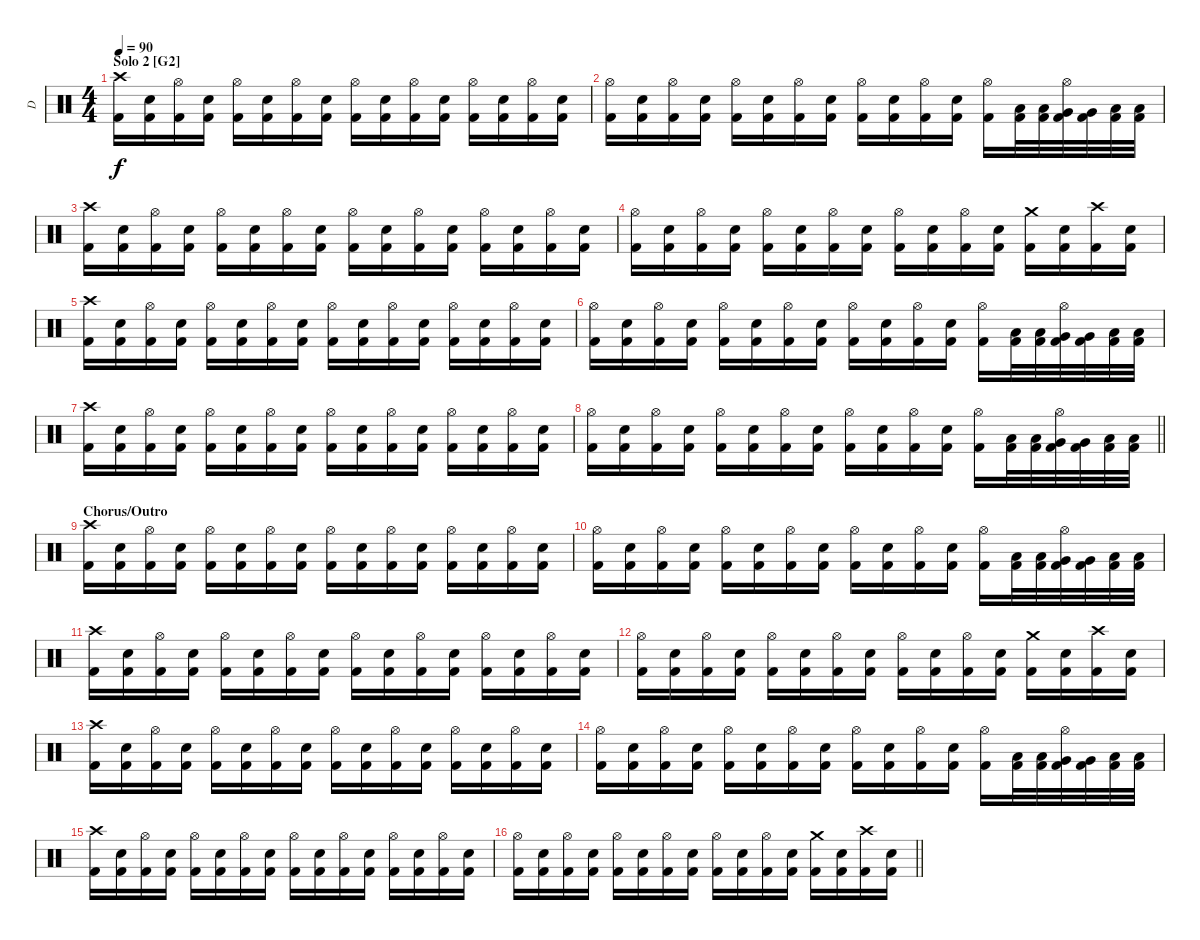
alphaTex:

\track ("D" "D") {instrument percussion}
\staff {score}
\articulation defaults
\ts (4 4)
\section ("" "Solo 2 [G2]")
\tempo 90
\clef neutral
\ks c
("Crash high (hit)" "Kick (hit) 2").16{dy f} ("Electric Snare (hit)" "Kick (hit) 2").16 ("Hi-Hat (open)" "Kick (hit) 2").16 ("Electric Snare (hit)" "Kick (hit) 2").16 ("Hi-Hat (open)" "Kick (hit) 2").16 ("Electric Snare (hit)" "Kick (hit) 2").16 ("Hi-Hat (open)" "Kick (hit) 2").16 ("Electric Snare (hit)" "Kick (hit) 2").16 ("Hi-Hat (open)" "Kick (hit) 2").16 ("Electric Snare (hit)" "Kick (hit) 2").16 ("Hi-Hat (open)" "Kick (hit) 2").16 ("Electric Snare (hit)" "Kick (hit) 2").16 ("Hi-Hat (open)" "Kick (hit) 2").16 ("Electric Snare (hit)" "Kick (hit) 2").16 ("Hi-Hat (open)" "Kick (hit) 2").16 ("Electric Snare (hit)" "Kick (hit) 2").16 |
("Hi-Hat (open)" "Kick (hit) 2").16 ("Electric Snare (hit)" "Kick (hit) 2").16 ("Hi-Hat (open)" "Kick (hit) 2").16 ("Electric Snare (hit)" "Kick (hit) 2").16 ("Hi-Hat (open)" "Kick (hit) 2").16 ("Electric Snare (hit)" "Kick (hit) 2").16 ("Hi-Hat (open)" "Kick (hit) 2").16 ("Electric Snare (hit)" "Kick (hit) 2").16 ("Hi-Hat (open)" "Kick (hit) 2").16 ("Electric Snare (hit)" "Kick (hit) 2").16 ("Hi-Hat (open)" "Kick (hit) 2").16 ("Electric Snare (hit)" "Kick (hit) 2").16 ("Hi-Hat (open)" "Kick (hit) 2").16 ("Low Tom (hit)" "Kick (hit) 2").32 ("Low Tom (hit)" "Kick (hit) 2").32 ("Hi-Hat (open)" "Very Low Tom (hit)" "Kick (hit) 2").32 ("Very Low Tom (hit)" "Kick (hit) 2").32 ("Low Floor Tom (hit)" "Kick (hit) 2").32 ("Low Floor Tom (hit)" "Kick (hit) 2").32 |
("Crash high (hit)" "Kick (hit) 2").16 ("Electric Snare (hit)" "Kick (hit) 2").16 ("Hi-Hat (open)" "Kick (hit) 2").16 ("Electric Snare (hit)" "Kick (hit) 2").16 ("Hi-Hat (open)" "Kick (hit) 2").16 ("Electric Snare (hit)" "Kick (hit) 2").16 ("Hi-Hat (open)" "Kick (hit) 2").16 ("Electric Snare (hit)" "Kick (hit) 2").16 ("Hi-Hat (open)" "Kick (hit) 2").16 ("Electric Snare (hit)" "Kick (hit) 2").16 ("Hi-Hat (open)" "Kick (hit) 2").16 ("Electric Snare (hit)" "Kick (hit) 2").16 ("Hi-Hat (open)" "Kick (hit) 2").16 ("Electric Snare (hit)" "Kick (hit) 2").16 ("Hi-Hat (open)" "Kick (hit) 2").16 ("Electric Snare (hit)" "Kick (hit) 2").16 |
("Hi-Hat (open)" "Kick (hit) 2").16 ("Electric Snare (hit)" "Kick (hit) 2").16 ("Hi-Hat (open)" "Kick (hit) 2").16 ("Electric Snare (hit)" "Kick (hit) 2").16 ("Hi-Hat (open)" "Kick (hit) 2").16 ("Electric Snare (hit)" "Kick (hit) 2").16 ("Hi-Hat (open)" "Kick (hit) 2").16 ("Electric Snare (hit)" "Kick (hit) 2").16 ("Hi-Hat (open)" "Kick (hit) 2").16 ("Electric Snare (hit)" "Kick (hit) 2").16 ("Hi-Hat (open)" "Kick (hit) 2").16 ("Electric Snare (hit)" "Kick (hit) 2").16 ("Crash medium (hit)" "Kick (hit) 2").16 ("Electric Snare (hit)" "Kick (hit) 2").16 ("Crash high (hit)" "Kick (hit) 2").16 ("Electric Snare (hit)" "Kick (hit) 2").16 |
("Crash high (hit)" "Kick (hit) 2").16 ("Electric Snare (hit)" "Kick (hit) 2").16 ("Hi-Hat (open)" "Kick (hit) 2").16 ("Electric Snare (hit)" "Kick (hit) 2").16 ("Hi-Hat (open)" "Kick (hit) 2").16 ("Electric Snare (hit)" "Kick (hit) 2").16 ("Hi-Hat (open)" "Kick (hit) 2").16 ("Electric Snare (hit)" "Kick (hit) 2").16 ("Hi-Hat (open)" "Kick (hit) 2").16 ("Electric Snare (hit)" "Kick (hit) 2").16 ("Hi-Hat (open)" "Kick (hit) 2").16 ("Electric Snare (hit)" "Kick (hit) 2").16 ("Hi-Hat (open)" "Kick (hit) 2").16 ("Electric Snare (hit)" "Kick (hit) 2").16 ("Hi-Hat (open)" "Kick (hit) 2").16 ("Electric Snare (hit)" "Kick (hit) 2").16 |
("Hi-Hat (open)" "Kick (hit) 2").16 ("Electric Snare (hit)" "Kick (hit) 2").16 ("Hi-Hat (open)" "Kick (hit) 2").16 ("Electric Snare (hit)" "Kick (hit) 2").16 ("Hi-Hat (open)" "Kick (hit) 2").16 ("Electric Snare (hit)" "Kick (hit) 2").16 ("Hi-Hat (open)" "Kick (hit) 2").16 ("Electric Snare (hit)" "Kick (hit) 2").16 ("Hi-Hat (open)" "Kick (hit) 2").16 ("Electric Snare (hit)" "Kick (hit) 2").16 ("Hi-Hat (open)" "Kick (hit) 2").16 ("Electric Snare (hit)" "Kick (hit) 2").16 ("Hi-Hat (open)" "Kick (hit) 2").16 ("Low Tom (hit)" "Kick (hit) 2").32 ("Low Tom (hit)" "Kick (hit) 2").32 ("Hi-Hat (open)" "Very Low Tom (hit)" "Kick (hit) 2").32 ("Very Low Tom (hit)" "Kick (hit) 2").32 ("Low Floor Tom (hit)" "Kick (hit) 2").32 ("Low Floor Tom (hit)" "Kick (hit) 2").32 |
("Crash high (hit)" "Kick (hit) 2").16 ("Electric Snare (hit)" "Kick (hit) 2").16 ("Hi-Hat (open)" "Kick (hit) 2").16 ("Electric Snare (hit)" "Kick (hit) 2").16 ("Hi-Hat (open)" "Kick (hit) 2").16 ("Electric Snare (hit)" "Kick (hit) 2").16 ("Hi-Hat (open)" "Kick (hit) 2").16 ("Electric Snare (hit)" "Kick (hit) 2").16 ("Hi-Hat (open)" "Kick (hit) 2").16 ("Electric Snare (hit)" "Kick (hit) 2").16 ("Hi-Hat (open)" "Kick (hit) 2").16 ("Electric Snare (hit)" "Kick (hit) 2").16 ("Hi-Hat (open)" "Kick (hit) 2").16 ("Electric Snare (hit)" "Kick (hit) 2").16 ("Hi-Hat (open)" "Kick (hit) 2").16 ("Electric Snare (hit)" "Kick (hit) 2").16 |
\barLineRight lightlight
("Hi-Hat (open)" "Kick (hit) 2").16 ("Electric Snare (hit)" "Kick (hit) 2").16 ("Hi-Hat (open)" "Kick (hit) 2").16 ("Electric Snare (hit)" "Kick (hit) 2").16 ("Hi-Hat (open)" "Kick (hit) 2").16 ("Electric Snare (hit)" "Kick (hit) 2").16 ("Hi-Hat (open)" "Kick (hit) 2").16 ("Electric Snare (hit)" "Kick (hit) 2").16 ("Hi-Hat (open)" "Kick (hit) 2").16 ("Electric Snare (hit)" "Kick (hit) 2").16 ("Hi-Hat (open)" "Kick (hit) 2").16 ("Electric Snare (hit)" "Kick (hit) 2").16 ("Hi-Hat (open)" "Kick (hit) 2").16 ("Low Tom (hit)" "Kick (hit) 2").32 ("Low Tom (hit)" "Kick (hit) 2").32 ("Hi-Hat (open)" "Very Low Tom (hit)" "Kick (hit) 2").32 ("Very Low Tom (hit)" "Kick (hit) 2").32 ("Low Floor Tom (hit)" "Kick (hit) 2").32 ("Low Floor Tom (hit)" "Kick (hit) 2").32 |
\section ("" "Chorus/Outro")
("Crash high (hit)" "Kick (hit) 2").16 ("Electric Snare (hit)" "Kick (hit) 2").16 ("Hi-Hat (open)" "Kick (hit) 2").16 ("Electric Snare (hit)" "Kick (hit) 2").16 ("Hi-Hat (open)" "Kick (hit) 2").16 ("Electric Snare (hit)" "Kick (hit) 2").16 ("Hi-Hat (open)" "Kick (hit) 2").16 ("Electric Snare (hit)" "Kick (hit) 2").16 ("Hi-Hat (open)" "Kick (hit) 2").16 ("Electric Snare (hit)" "Kick (hit) 2").16 ("Hi-Hat (open)" "Kick (hit) 2").16 ("Electric Snare (hit)" "Kick (hit) 2").16 ("Hi-Hat (open)" "Kick (hit) 2").16 ("Electric Snare (hit)" "Kick (hit) 2").16 ("Hi-Hat (open)" "Kick (hit) 2").16 ("Electric Snare (hit)" "Kick (hit) 2").16 |
("Hi-Hat (open)" "Kick (hit) 2").16 ("Electric Snare (hit)" "Kick (hit) 2").16 ("Hi-Hat (open)" "Kick (hit) 2").16 ("Electric Snare (hit)" "Kick (hit) 2").16 ("Hi-Hat (open)" "Kick (hit) 2").16 ("Electric Snare (hit)" "Kick (hit) 2").16 ("Hi-Hat (open)" "Kick (hit) 2").16 ("Electric Snare (hit)" "Kick (hit) 2").16 ("Hi-Hat (open)" "Kick (hit) 2").16 ("Electric Snare (hit)" "Kick (hit) 2").16 ("Hi-Hat (open)" "Kick (hit) 2").16 ("Electric Snare (hit)" "Kick (hit) 2").16 ("Hi-Hat (open)" "Kick (hit) 2").16 ("Low Tom (hit)" "Kick (hit) 2").32 ("Low Tom (hit)" "Kick (hit) 2").32 ("Hi-Hat (open)" "Very Low Tom (hit)" "Kick (hit) 2").32 ("Very Low Tom (hit)" "Kick (hit) 2").32 ("Low Floor Tom (hit)" "Kick (hit) 2").32 ("Low Floor Tom (hit)" "Kick (hit) 2").32 |
("Crash high (hit)" "Kick (hit) 2").16 ("Electric Snare (hit)" "Kick (hit) 2").16 ("Hi-Hat (open)" "Kick (hit) 2").16 ("Electric Snare (hit)" "Kick (hit) 2").16 ("Hi-Hat (open)" "Kick (hit) 2").16 ("Electric Snare (hit)" "Kick (hit) 2").16 ("Hi-Hat (open)" "Kick (hit) 2").16 ("Electric Snare (hit)" "Kick (hit) 2").16 ("Hi-Hat (open)" "Kick (hit) 2").16 ("Electric Snare (hit)" "Kick (hit) 2").16 ("Hi-Hat (open)" "Kick (hit) 2").16 ("Electric Snare (hit)" "Kick (hit) 2").16 ("Hi-Hat (open)" "Kick (hit) 2").16 ("Electric Snare (hit)" "Kick (hit) 2").16 ("Hi-Hat (open)" "Kick (hit) 2").16 ("Electric Snare (hit)" "Kick (hit) 2").16 |
("Hi-Hat (open)" "Kick (hit) 2").16 ("Electric Snare (hit)" "Kick (hit) 2").16 ("Hi-Hat (open)" "Kick (hit) 2").16 ("Electric Snare (hit)" "Kick (hit) 2").16 ("Hi-Hat (open)" "Kick (hit) 2").16 ("Electric Snare (hit)" "Kick (hit) 2").16 ("Hi-Hat (open)" "Kick (hit) 2").16 ("Electric Snare (hit)" "Kick (hit) 2").16 ("Hi-Hat (open)" "Kick (hit) 2").16 ("Electric Snare (hit)" "Kick (hit) 2").16 ("Hi-Hat (open)" "Kick (hit) 2").16 ("Electric Snare (hit)" "Kick (hit) 2").16 ("Crash medium (hit)" "Kick (hit) 2").16 ("Electric Snare (hit)" "Kick (hit) 2").16 ("Crash high (hit)" "Kick (hit) 2").16 ("Electric Snare (hit)" "Kick (hit) 2").16 |
("Crash high (hit)" "Kick (hit) 2").16 ("Electric Snare (hit)" "Kick (hit) 2").16 ("Hi-Hat (open)" "Kick (hit) 2").16 ("Electric Snare (hit)" "Kick (hit) 2").16 ("Hi-Hat (open)" "Kick (hit) 2").16 ("Electric Snare (hit)" "Kick (hit) 2").16 ("Hi-Hat (open)" "Kick (hit) 2").16 ("Electric Snare (hit)" "Kick (hit) 2").16 ("Hi-Hat (open)" "Kick (hit) 2").16 ("Electric Snare (hit)" "Kick (hit) 2").16 ("Hi-Hat (open)" "Kick (hit) 2").16 ("Electric Snare (hit)" "Kick (hit) 2").16 ("Hi-Hat (open)" "Kick (hit) 2").16 ("Electric Snare (hit)" "Kick (hit) 2").16 ("Hi-Hat (open)" "Kick (hit) 2").16 ("Electric Snare (hit)" "Kick (hit) 2").16 |
("Hi-Hat (open)" "Kick (hit) 2").16 ("Electric Snare (hit)" "Kick (hit) 2").16 ("Hi-Hat (open)" "Kick (hit) 2").16 ("Electric Snare (hit)" "Kick (hit) 2").16 ("Hi-Hat (open)" "Kick (hit) 2").16 ("Electric Snare (hit)" "Kick (hit) 2").16 ("Hi-Hat (open)" "Kick (hit) 2").16 ("Electric Snare (hit)" "Kick (hit) 2").16 ("Hi-Hat (open)" "Kick (hit) 2").16 ("Electric Snare (hit)" "Kick (hit) 2").16 ("Hi-Hat (open)" "Kick (hit) 2").16 ("Electric Snare (hit)" "Kick (hit) 2").16 ("Hi-Hat (open)" "Kick (hit) 2").16 ("Low Tom (hit)" "Kick (hit) 2").32 ("Low Tom (hit)" "Kick (hit) 2").32 ("Hi-Hat (open)" "Very Low Tom (hit)" "Kick (hit) 2").32 ("Very Low Tom (hit)" "Kick (hit) 2").32 ("Low Floor Tom (hit)" "Kick (hit) 2").32 ("Low Floor Tom (hit)" "Kick (hit) 2").32 |
("Crash high (hit)" "Kick (hit) 2").16 ("Electric Snare (hit)" "Kick (hit) 2").16 ("Hi-Hat (open)" "Kick (hit) 2").16 ("Electric Snare (hit)" "Kick (hit) 2").16 ("Hi-Hat (open)" "Kick (hit) 2").16 ("Electric Snare (hit)" "Kick (hit) 2").16 ("Hi-Hat (open)" "Kick (hit) 2").16 ("Electric Snare (hit)" "Kick (hit) 2").16 ("Hi-Hat (open)" "Kick (hit) 2").16 ("Electric Snare (hit)" "Kick (hit) 2").16 ("Hi-Hat (open)" "Kick (hit) 2").16 ("Electric Snare (hit)" "Kick (hit) 2").16 ("Hi-Hat (open)" "Kick (hit) 2").16 ("Electric Snare (hit)" "Kick (hit) 2").16 ("Hi-Hat (open)" "Kick (hit) 2").16 ("Electric Snare (hit)" "Kick (hit) 2").16 |
\barLineRight lightlight
("Hi-Hat (open)" "Kick (hit) 2").16 ("Electric Snare (hit)" "Kick (hit) 2").16 ("Hi-Hat (open)" "Kick (hit) 2").16 ("Electric Snare (hit)" "Kick (hit) 2").16 ("Hi-Hat (open)" "Kick (hit) 2").16 ("Electric Snare (hit)" "Kick (hit) 2").16 ("Hi-Hat (open)" "Kick (hit) 2").16 ("Electric Snare (hit)" "Kick (hit) 2").16 ("Hi-Hat (open)" "Kick (hit) 2").16 ("Electric Snare (hit)" "Kick (hit) 2").16 ("Hi-Hat (open)" "Kick (hit) 2").16 ("Electric Snare (hit)" "Kick (hit) 2").16 ("Crash medium (hit)" "Kick (hit) 2").16 ("Electric Snare (hit)" "Kick (hit) 2").16 ("Crash high (hit)" "Kick (hit) 2").16 ("Electric Snare (hit)" "Kick (hit) 2").16
